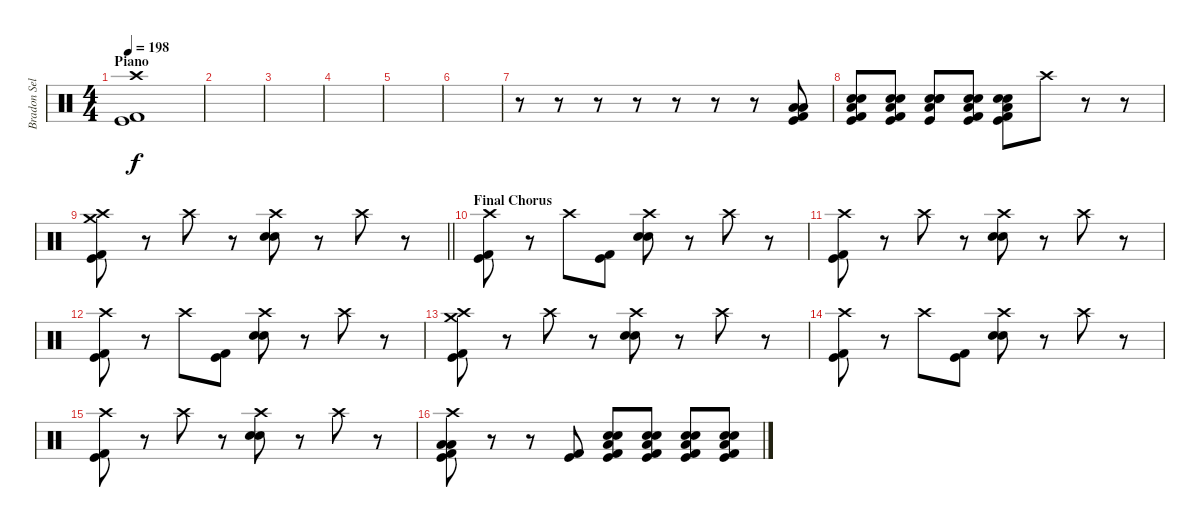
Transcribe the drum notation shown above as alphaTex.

\track ("Bradon Sellar" "Bradon Sel") {instrument percussion}
\staff {score}
\articulation defaults
\ts (4 4)
\section ("" "Piano")
\tempo 198
\clef neutral
\ks c
("Crash high (hit)" "Kick (hit)" "Kick (hit) 2").1{dy f} |
|
|
|
|
|
r.8 r.8 r.8 r.8 r.8 r.8 r.8 ("Low Floor Tom (hit)" "Low Floor Tom (hit)" "Kick (hit) 2" "Kick (hit)").8 |
("Snare (hit) 2" "Electric Snare (hit)" "Low Floor Tom (hit)" "Kick (hit) 2" "Kick (hit)").8 ("Snare (hit) 2" "Electric Snare (hit)" "Low Floor Tom (hit)" "Kick (hit) 2" "Kick (hit)").8 ("Snare (hit) 2" "Electric Snare (hit)" "Low Floor Tom (hit)" "Snare (hit)" "Kick (hit)").8 ("Snare (hit) 2" "Electric Snare (hit)" "Low Floor Tom (hit)" "Kick (hit) 2" "Kick (hit)").8 ("Snare (hit) 2" "Electric Snare (hit)" "Low Floor Tom (hit)" "Kick (hit) 2" "Kick (hit)").8 "Crash high (hit)".8 r.8 r.8 |
\barLineRight lightlight
("Crash medium (hit)" "Crash high (hit)" "Kick (hit) 2" "Kick (hit)").8 r.8 "Crash high (hit)".8 r.8 ("Crash high (hit)" "Electric Snare (hit)" "Snare (hit) 2").8 r.8 "Crash high (hit)".8 r.8 |
\section ("" "Final Chorus")
("Crash high (hit)" "Kick (hit) 2" "Kick (hit)").8 r.8 "Crash high (hit)".8 ("Kick (hit) 2" "Kick (hit)").8 ("Crash high (hit)" "Electric Snare (hit)" "Snare (hit) 2").8 r.8 "Crash high (hit)".8 r.8 |
("Crash high (hit)" "Kick (hit) 2" "Kick (hit)").8 r.8 "Crash high (hit)".8 r.8 ("Crash high (hit)" "Electric Snare (hit)" "Snare (hit) 2").8 r.8 "Crash high (hit)".8 r.8 |
("Crash high (hit)" "Kick (hit) 2" "Kick (hit)").8 r.8 "Crash high (hit)".8 ("Kick (hit) 2" "Kick (hit)").8 ("Crash high (hit)" "Electric Snare (hit)" "Snare (hit) 2").8 r.8 "Crash high (hit)".8 r.8 |
("Crash medium (hit)" "Crash high (hit)" "Kick (hit) 2" "Kick (hit)").8 r.8 "Crash high (hit)".8 r.8 ("Crash high (hit)" "Electric Snare (hit)" "Snare (hit) 2").8 r.8 "Crash high (hit)".8 r.8 |
("Crash high (hit)" "Kick (hit) 2" "Kick (hit)").8 r.8 "Crash high (hit)".8 ("Kick (hit) 2" "Kick (hit)").8 ("Crash high (hit)" "Electric Snare (hit)" "Snare (hit) 2").8 r.8 "Crash high (hit)".8 r.8 |
("Crash high (hit)" "Kick (hit) 2" "Kick (hit)").8 r.8 "Crash high (hit)".8 r.8 ("Crash high (hit)" "Electric Snare (hit)" "Snare (hit) 2").8 r.8 "Crash high (hit)".8 r.8 |
("Crash high (hit)" "Low Floor Tom (hit)" "Low Floor Tom (hit)" "Kick (hit)" "Kick (hit) 2").8 r.8 r.8 ("Kick (hit) 2" "Kick (hit)").8 ("Snare (hit) 2" "Electric Snare (hit)" "Low Floor Tom (hit)" "Kick (hit) 2" "Kick (hit)").8 ("Snare (hit) 2" "Electric Snare (hit)" "Low Floor Tom (hit)" "Kick (hit) 2" "Kick (hit)").8 ("Snare (hit) 2" "Electric Snare (hit)" "Low Floor Tom (hit)" "Kick (hit) 2" "Kick (hit)").8 ("Snare (hit) 2" "Electric Snare (hit)" "Low Floor Tom (hit)" "Kick (hit) 2" "Kick (hit)").8
